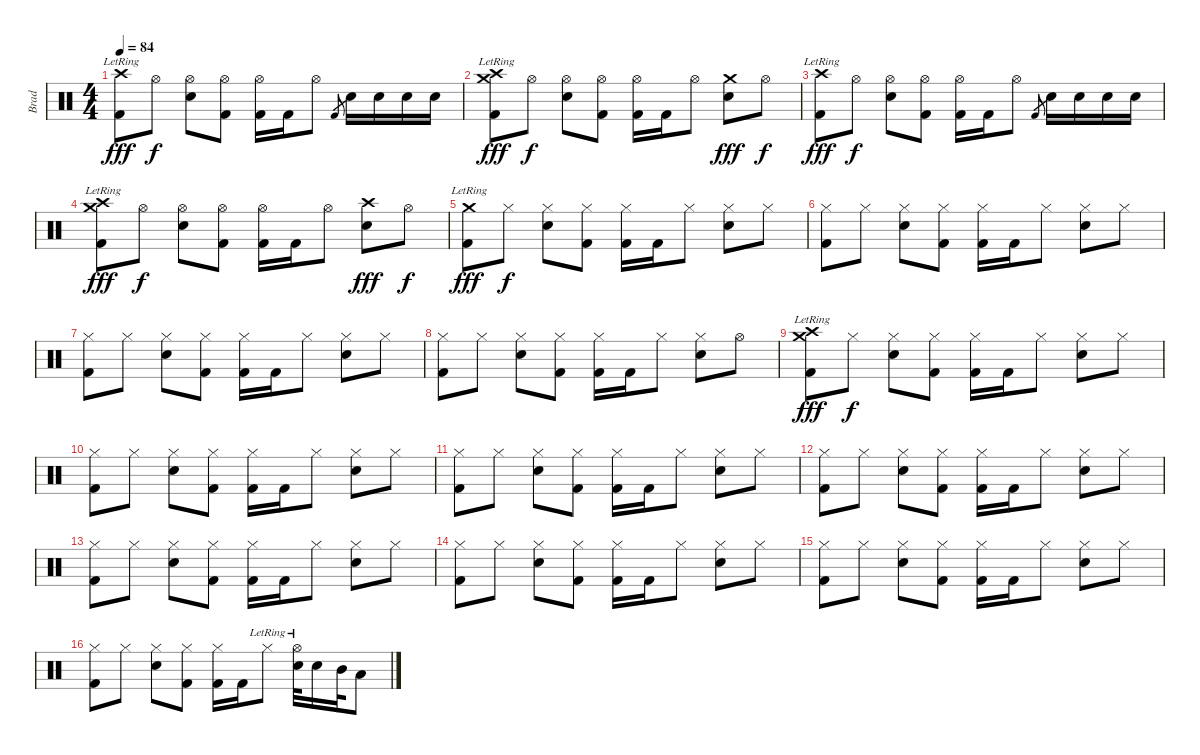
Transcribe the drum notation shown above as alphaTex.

\track ("Brad" "Brad") {instrument percussion}
\staff {score}
\articulation defaults
\ts (4 4)
\tempo 84
\clef neutral
\ks c
("Crash high (hit)"{lr} "Kick (hit) 2").8{dy fff} "Hi-Hat (open)".8{dy f} ("Hi-Hat (open)" "Electric Snare (hit)").8 ("Hi-Hat (open)" "Kick (hit) 2").8 ("Hi-Hat (open)" "Kick (hit) 2").16 "Kick (hit) 2".16 "Hi-Hat (open)".8 "Kick (hit) 2".8{gr} "Electric Snare (hit)".16 "Electric Snare (hit)".16 "Electric Snare (hit)".16 "Electric Snare (hit)".16 |
("Crash high (hit)"{lr} "Crash medium (hit)"{lr} "Kick (hit) 2").8{dy fff} "Hi-Hat (open)".8{dy f} ("Hi-Hat (open)" "Electric Snare (hit)").8 ("Hi-Hat (open)" "Kick (hit) 2").8 ("Hi-Hat (open)" "Kick (hit) 2").16 "Kick (hit) 2".16 "Hi-Hat (open)".8 ("Crash medium (hit)" "Electric Snare (hit)").8{dy fff} "Hi-Hat (open)".8{dy f} |
("Crash high (hit)"{lr} "Kick (hit) 2").8{dy fff} "Hi-Hat (open)".8{dy f} ("Hi-Hat (open)" "Electric Snare (hit)").8 ("Hi-Hat (open)" "Kick (hit) 2").8 ("Hi-Hat (open)" "Kick (hit) 2").16 "Kick (hit) 2".16 "Hi-Hat (open)".8 "Kick (hit) 2".8{gr} "Electric Snare (hit)".16 "Electric Snare (hit)".16 "Electric Snare (hit)".16 "Electric Snare (hit)".16 |
("Crash high (hit)"{lr} "Crash medium (hit)"{lr} "Kick (hit) 2").8{dy fff} "Hi-Hat (open)".8{dy f} ("Hi-Hat (open)" "Electric Snare (hit)").8 ("Hi-Hat (open)" "Kick (hit) 2").8 ("Hi-Hat (open)" "Kick (hit) 2").16 "Kick (hit) 2".16 "Hi-Hat (open)".8 ("Crash high (hit)" "Electric Snare (hit)").8{dy fff} "Hi-Hat (open)".8{dy f} |
("Crash medium (hit)"{lr} "Kick (hit) 2").8{dy fff} "Hi-Hat (closed)".8{dy f} ("Hi-Hat (closed)" "Electric Snare (hit)").8 ("Hi-Hat (closed)" "Kick (hit) 2").8 ("Hi-Hat (closed)" "Kick (hit) 2").16 "Kick (hit) 2".16 "Hi-Hat (closed)".8 ("Hi-Hat (closed)" "Electric Snare (hit)").8 "Hi-Hat (closed)".8 |
("Hi-Hat (closed)" "Kick (hit) 2").8 "Hi-Hat (closed)".8 ("Hi-Hat (closed)" "Electric Snare (hit)").8 ("Hi-Hat (closed)" "Kick (hit) 2").8 ("Hi-Hat (closed)" "Kick (hit) 2").16 "Kick (hit) 2".16 "Hi-Hat (closed)".8 ("Hi-Hat (closed)" "Electric Snare (hit)").8 "Hi-Hat (closed)".8 |
("Hi-Hat (closed)" "Kick (hit) 2").8 "Hi-Hat (closed)".8 ("Hi-Hat (closed)" "Electric Snare (hit)").8 ("Hi-Hat (closed)" "Kick (hit) 2").8 ("Hi-Hat (closed)" "Kick (hit) 2").16 "Kick (hit) 2".16 "Hi-Hat (closed)".8 ("Hi-Hat (closed)" "Electric Snare (hit)").8 "Hi-Hat (closed)".8 |
("Hi-Hat (closed)" "Kick (hit) 2").8 "Hi-Hat (closed)".8 ("Hi-Hat (closed)" "Electric Snare (hit)").8 ("Hi-Hat (closed)" "Kick (hit) 2").8 ("Hi-Hat (closed)" "Kick (hit) 2").16 "Kick (hit) 2".16 "Hi-Hat (closed)".8 ("Hi-Hat (closed)" "Electric Snare (hit)").8 "Hi-Hat (open)".8 |
("Crash high (hit)"{lr} "Crash medium (hit)"{lr} "Kick (hit) 2").8{dy fff} "Hi-Hat (closed)".8{dy f} ("Hi-Hat (closed)" "Electric Snare (hit)").8 ("Hi-Hat (closed)" "Kick (hit) 2").8 ("Hi-Hat (closed)" "Kick (hit) 2").16 "Kick (hit) 2".16 "Hi-Hat (closed)".8 ("Hi-Hat (closed)" "Electric Snare (hit)").8 "Hi-Hat (closed)".8 |
("Hi-Hat (closed)" "Kick (hit) 2").8 "Hi-Hat (closed)".8 ("Hi-Hat (closed)" "Electric Snare (hit)").8 ("Hi-Hat (closed)" "Kick (hit) 2").8 ("Hi-Hat (closed)" "Kick (hit) 2").16 "Kick (hit) 2".16 "Hi-Hat (closed)".8 ("Hi-Hat (closed)" "Electric Snare (hit)").8 "Hi-Hat (closed)".8 |
("Hi-Hat (closed)" "Kick (hit) 2").8 "Hi-Hat (closed)".8 ("Hi-Hat (closed)" "Electric Snare (hit)").8 ("Hi-Hat (closed)" "Kick (hit) 2").8 ("Hi-Hat (closed)" "Kick (hit) 2").16 "Kick (hit) 2".16 "Hi-Hat (closed)".8 ("Hi-Hat (closed)" "Electric Snare (hit)").8 "Hi-Hat (closed)".8 |
("Hi-Hat (closed)" "Kick (hit) 2").8 "Hi-Hat (closed)".8 ("Hi-Hat (closed)" "Electric Snare (hit)").8 ("Hi-Hat (closed)" "Kick (hit) 2").8 ("Hi-Hat (closed)" "Kick (hit) 2").16 "Kick (hit) 2".16 "Hi-Hat (closed)".8 ("Hi-Hat (closed)" "Electric Snare (hit)").8 "Hi-Hat (closed)".8 |
("Hi-Hat (closed)" "Kick (hit) 2").8 "Hi-Hat (closed)".8 ("Hi-Hat (closed)" "Electric Snare (hit)").8 ("Hi-Hat (closed)" "Kick (hit) 2").8 ("Hi-Hat (closed)" "Kick (hit) 2").16 "Kick (hit) 2".16 "Hi-Hat (closed)".8 ("Hi-Hat (closed)" "Electric Snare (hit)").8 "Hi-Hat (closed)".8 |
("Hi-Hat (closed)" "Kick (hit) 2").8 "Hi-Hat (closed)".8 ("Hi-Hat (closed)" "Electric Snare (hit)").8 ("Hi-Hat (closed)" "Kick (hit) 2").8 ("Hi-Hat (closed)" "Kick (hit) 2").16 "Kick (hit) 2".16 "Hi-Hat (closed)".8 ("Hi-Hat (closed)" "Electric Snare (hit)").8 "Hi-Hat (closed)".8 |
("Hi-Hat (closed)" "Kick (hit) 2").8 "Hi-Hat (closed)".8 ("Hi-Hat (closed)" "Electric Snare (hit)").8 ("Hi-Hat (closed)" "Kick (hit) 2").8 ("Hi-Hat (closed)" "Kick (hit) 2").16 "Kick (hit) 2".16 "Hi-Hat (closed)".8 ("Hi-Hat (closed)" "Electric Snare (hit)").8 "Hi-Hat (closed)".8 |
("Hi-Hat (closed)" "Kick (hit) 2").8 "Hi-Hat (closed)".8 ("Hi-Hat (closed)" "Electric Snare (hit)").8 ("Hi-Hat (closed)" "Kick (hit) 2").8 ("Hi-Hat (closed)" "Kick (hit) 2").16 "Kick (hit) 2".16 "Hi-Hat (closed)"{lr}.8 ("Hi-Hat (open)"{lr} "Electric Snare (hit)").32 "Electric Snare (hit)".16 "Mid Tom (hit)".32 "Low Tom (hit)".8
